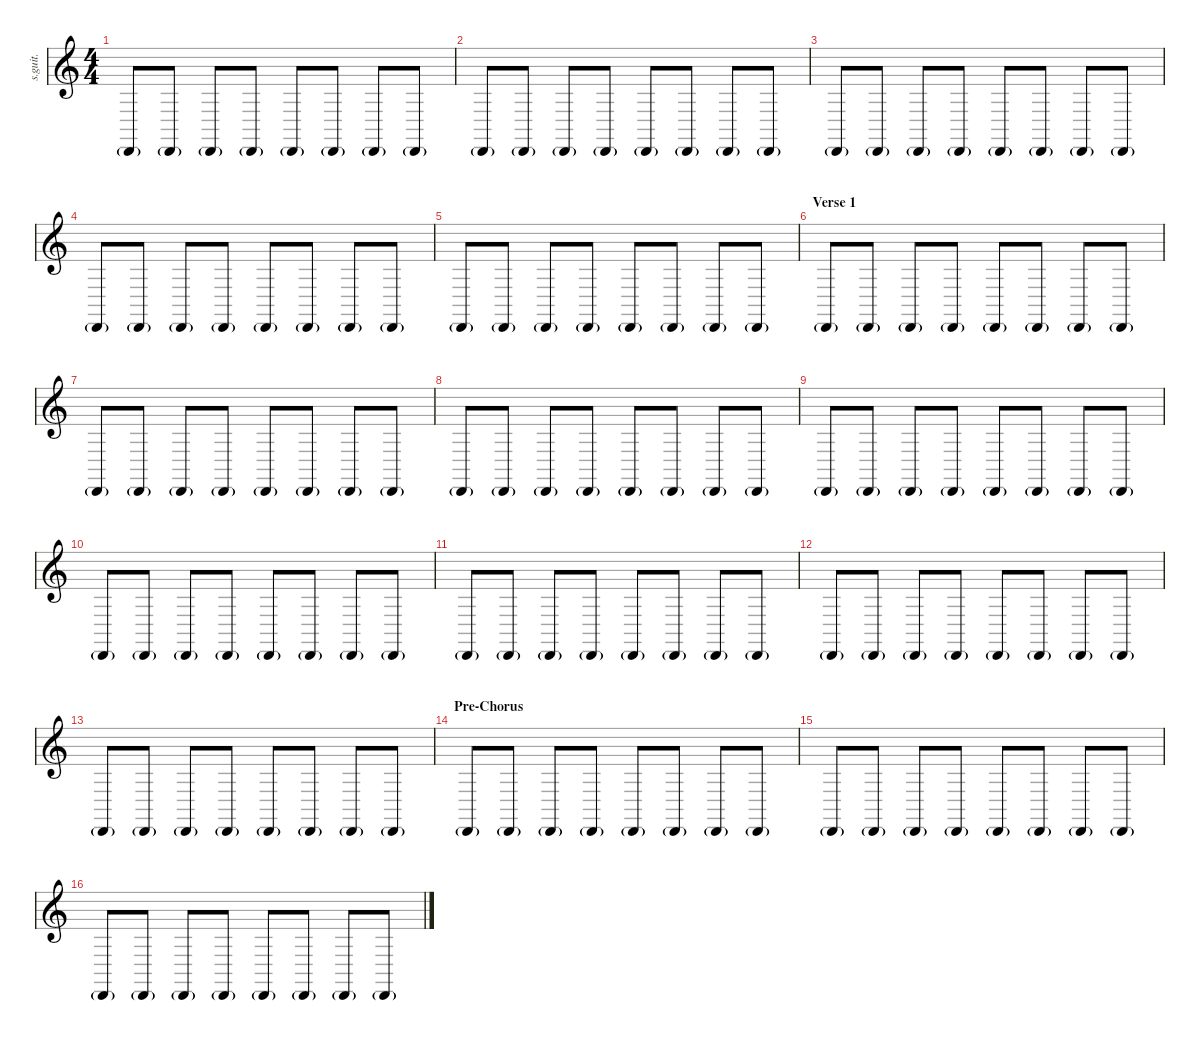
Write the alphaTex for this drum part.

\defaultSystemsLayout 4
\hideDynamics
\bracketExtendMode nobrackets
\track ("Shaker" "s.guit.") {instrument percussion}
\staff {score}
\articulation defaults
\ts (4 4)
\tempo (124 hide)
\clef g2
\ks c "Cabasa (hit)"{g}.8{lyrics (0 "") lyrics (1 "") lyrics (2 "") lyrics (3 "") lyrics (4 "") dy p} "Cabasa (hit)"{g}.8{lyrics (0 "") lyrics (1 "") lyrics (2 "") lyrics (3 "") lyrics (4 "") dy pp} "Cabasa (hit)"{g}.8{lyrics (0 "") lyrics (1 "") lyrics (2 "") lyrics (3 "") lyrics (4 "") dy p} "Cabasa (hit)"{g}.8{lyrics (0 "") lyrics (1 "") lyrics (2 "") lyrics (3 "") lyrics (4 "") dy pp} "Cabasa (hit)"{g}.8{lyrics (0 "") lyrics (1 "") lyrics (2 "") lyrics (3 "") lyrics (4 "") dy p} "Cabasa (hit)"{g}.8{lyrics (0 "") lyrics (1 "") lyrics (2 "") lyrics (3 "") lyrics (4 "") dy pp} "Cabasa (hit)"{g}.8{lyrics (0 "") lyrics (1 "") lyrics (2 "") lyrics (3 "") lyrics (4 "") dy p} "Cabasa (hit)"{g}.8{lyrics (0 "") lyrics (1 "") lyrics (2 "") lyrics (3 "") lyrics (4 "") dy pp}
|
"Cabasa (hit)"{g}.8{lyrics (0 "") lyrics (1 "") lyrics (2 "") lyrics (3 "") lyrics (4 "") dy p} "Cabasa (hit)"{g}.8{lyrics (0 "") lyrics (1 "") lyrics (2 "") lyrics (3 "") lyrics (4 "") dy pp} "Cabasa (hit)"{g}.8{lyrics (0 "") lyrics (1 "") lyrics (2 "") lyrics (3 "") lyrics (4 "") dy p} "Cabasa (hit)"{g}.8{lyrics (0 "") lyrics (1 "") lyrics (2 "") lyrics (3 "") lyrics (4 "") dy pp} "Cabasa (hit)"{g}.8{lyrics (0 "") lyrics (1 "") lyrics (2 "") lyrics (3 "") lyrics (4 "") dy p} "Cabasa (hit)"{g}.8{lyrics (0 "") lyrics (1 "") lyrics (2 "") lyrics (3 "") lyrics (4 "") dy pp} "Cabasa (hit)"{g}.8{lyrics (0 "") lyrics (1 "") lyrics (2 "") lyrics (3 "") lyrics (4 "") dy p} "Cabasa (hit)"{g}.8{lyrics (0 "") lyrics (1 "") lyrics (2 "") lyrics (3 "") lyrics (4 "") dy pp} |
"Cabasa (hit)"{g}.8{lyrics (0 "") lyrics (1 "") lyrics (2 "") lyrics (3 "") lyrics (4 "") dy p} "Cabasa (hit)"{g}.8{lyrics (0 "") lyrics (1 "") lyrics (2 "") lyrics (3 "") lyrics (4 "") dy pp} "Cabasa (hit)"{g}.8{lyrics (0 "") lyrics (1 "") lyrics (2 "") lyrics (3 "") lyrics (4 "") dy p} "Cabasa (hit)"{g}.8{lyrics (0 "") lyrics (1 "") lyrics (2 "") lyrics (3 "") lyrics (4 "") dy pp} "Cabasa (hit)"{g}.8{lyrics (0 "") lyrics (1 "") lyrics (2 "") lyrics (3 "") lyrics (4 "") dy p} "Cabasa (hit)"{g}.8{lyrics (0 "") lyrics (1 "") lyrics (2 "") lyrics (3 "") lyrics (4 "") dy pp} "Cabasa (hit)"{g}.8{lyrics (0 "") lyrics (1 "") lyrics (2 "") lyrics (3 "") lyrics (4 "") dy p} "Cabasa (hit)"{g}.8{lyrics (0 "") lyrics (1 "") lyrics (2 "") lyrics (3 "") lyrics (4 "") dy pp} |
"Cabasa (hit)"{g}.8{lyrics (0 "") lyrics (1 "") lyrics (2 "") lyrics (3 "") lyrics (4 "") dy p} "Cabasa (hit)"{g}.8{lyrics (0 "") lyrics (1 "") lyrics (2 "") lyrics (3 "") lyrics (4 "") dy pp} "Cabasa (hit)"{g}.8{lyrics (0 "") lyrics (1 "") lyrics (2 "") lyrics (3 "") lyrics (4 "") dy p} "Cabasa (hit)"{g}.8{lyrics (0 "") lyrics (1 "") lyrics (2 "") lyrics (3 "") lyrics (4 "") dy pp} "Cabasa (hit)"{g}.8{lyrics (0 "") lyrics (1 "") lyrics (2 "") lyrics (3 "") lyrics (4 "") dy p} "Cabasa (hit)"{g}.8{lyrics (0 "") lyrics (1 "") lyrics (2 "") lyrics (3 "") lyrics (4 "") dy pp} "Cabasa (hit)"{g}.8{lyrics (0 "") lyrics (1 "") lyrics (2 "") lyrics (3 "") lyrics (4 "") dy p} "Cabasa (hit)"{g}.8{lyrics (0 "") lyrics (1 "") lyrics (2 "") lyrics (3 "") lyrics (4 "") dy pp} |
"Cabasa (hit)"{g}.8{lyrics (0 "") lyrics (1 "") lyrics (2 "") lyrics (3 "") lyrics (4 "") dy p} "Cabasa (hit)"{g}.8{lyrics (0 "") lyrics (1 "") lyrics (2 "") lyrics (3 "") lyrics (4 "") dy pp} "Cabasa (hit)"{g}.8{lyrics (0 "") lyrics (1 "") lyrics (2 "") lyrics (3 "") lyrics (4 "") dy p} "Cabasa (hit)"{g}.8{lyrics (0 "") lyrics (1 "") lyrics (2 "") lyrics (3 "") lyrics (4 "") dy pp} "Cabasa (hit)"{g}.8{lyrics (0 "") lyrics (1 "") lyrics (2 "") lyrics (3 "") lyrics (4 "") dy p} "Cabasa (hit)"{g}.8{lyrics (0 "") lyrics (1 "") lyrics (2 "") lyrics (3 "") lyrics (4 "") dy pp} "Cabasa (hit)"{g}.8{lyrics (0 "") lyrics (1 "") lyrics (2 "") lyrics (3 "") lyrics (4 "") dy p} "Cabasa (hit)"{g}.8{lyrics (0 "") lyrics (1 "") lyrics (2 "") lyrics (3 "") lyrics (4 "") dy pp} |
\section ("" "Verse 1")
"Cabasa (hit)"{g}.8{lyrics (0 "") lyrics (1 "") lyrics (2 "") lyrics (3 "") lyrics (4 "") dy p} "Cabasa (hit)"{g}.8{lyrics (0 "") lyrics (1 "") lyrics (2 "") lyrics (3 "") lyrics (4 "") dy pp} "Cabasa (hit)"{g}.8{lyrics (0 "") lyrics (1 "") lyrics (2 "") lyrics (3 "") lyrics (4 "") dy p} "Cabasa (hit)"{g}.8{lyrics (0 "") lyrics (1 "") lyrics (2 "") lyrics (3 "") lyrics (4 "") dy pp} "Cabasa (hit)"{g}.8{lyrics (0 "") lyrics (1 "") lyrics (2 "") lyrics (3 "") lyrics (4 "") dy p} "Cabasa (hit)"{g}.8{lyrics (0 "") lyrics (1 "") lyrics (2 "") lyrics (3 "") lyrics (4 "") dy pp} "Cabasa (hit)"{g}.8{lyrics (0 "") lyrics (1 "") lyrics (2 "") lyrics (3 "") lyrics (4 "") dy p} "Cabasa (hit)"{g}.8{lyrics (0 "") lyrics (1 "") lyrics (2 "") lyrics (3 "") lyrics (4 "") dy pp} |
"Cabasa (hit)"{g}.8{lyrics (0 "") lyrics (1 "") lyrics (2 "") lyrics (3 "") lyrics (4 "") dy p} "Cabasa (hit)"{g}.8{lyrics (0 "") lyrics (1 "") lyrics (2 "") lyrics (3 "") lyrics (4 "") dy pp} "Cabasa (hit)"{g}.8{lyrics (0 "") lyrics (1 "") lyrics (2 "") lyrics (3 "") lyrics (4 "") dy p} "Cabasa (hit)"{g}.8{lyrics (0 "") lyrics (1 "") lyrics (2 "") lyrics (3 "") lyrics (4 "") dy pp} "Cabasa (hit)"{g}.8{lyrics (0 "") lyrics (1 "") lyrics (2 "") lyrics (3 "") lyrics (4 "") dy p} "Cabasa (hit)"{g}.8{lyrics (0 "") lyrics (1 "") lyrics (2 "") lyrics (3 "") lyrics (4 "") dy pp} "Cabasa (hit)"{g}.8{lyrics (0 "") lyrics (1 "") lyrics (2 "") lyrics (3 "") lyrics (4 "") dy p} "Cabasa (hit)"{g}.8{lyrics (0 "") lyrics (1 "") lyrics (2 "") lyrics (3 "") lyrics (4 "") dy pp} |
"Cabasa (hit)"{g}.8{lyrics (0 "") lyrics (1 "") lyrics (2 "") lyrics (3 "") lyrics (4 "") dy p} "Cabasa (hit)"{g}.8{lyrics (0 "") lyrics (1 "") lyrics (2 "") lyrics (3 "") lyrics (4 "") dy pp} "Cabasa (hit)"{g}.8{lyrics (0 "") lyrics (1 "") lyrics (2 "") lyrics (3 "") lyrics (4 "") dy p} "Cabasa (hit)"{g}.8{lyrics (0 "") lyrics (1 "") lyrics (2 "") lyrics (3 "") lyrics (4 "") dy pp} "Cabasa (hit)"{g}.8{lyrics (0 "") lyrics (1 "") lyrics (2 "") lyrics (3 "") lyrics (4 "") dy p} "Cabasa (hit)"{g}.8{lyrics (0 "") lyrics (1 "") lyrics (2 "") lyrics (3 "") lyrics (4 "") dy pp} "Cabasa (hit)"{g}.8{lyrics (0 "") lyrics (1 "") lyrics (2 "") lyrics (3 "") lyrics (4 "") dy p} "Cabasa (hit)"{g}.8{lyrics (0 "") lyrics (1 "") lyrics (2 "") lyrics (3 "") lyrics (4 "") dy pp} |
"Cabasa (hit)"{g}.8{lyrics (0 "") lyrics (1 "") lyrics (2 "") lyrics (3 "") lyrics (4 "") dy p} "Cabasa (hit)"{g}.8{lyrics (0 "") lyrics (1 "") lyrics (2 "") lyrics (3 "") lyrics (4 "") dy pp} "Cabasa (hit)"{g}.8{lyrics (0 "") lyrics (1 "") lyrics (2 "") lyrics (3 "") lyrics (4 "") dy p} "Cabasa (hit)"{g}.8{lyrics (0 "") lyrics (1 "") lyrics (2 "") lyrics (3 "") lyrics (4 "") dy pp} "Cabasa (hit)"{g}.8{lyrics (0 "") lyrics (1 "") lyrics (2 "") lyrics (3 "") lyrics (4 "") dy p} "Cabasa (hit)"{g}.8{lyrics (0 "") lyrics (1 "") lyrics (2 "") lyrics (3 "") lyrics (4 "") dy pp} "Cabasa (hit)"{g}.8{lyrics (0 "") lyrics (1 "") lyrics (2 "") lyrics (3 "") lyrics (4 "") dy p} "Cabasa (hit)"{g}.8{lyrics (0 "") lyrics (1 "") lyrics (2 "") lyrics (3 "") lyrics (4 "") dy pp} |
"Cabasa (hit)"{g}.8{lyrics (0 "") lyrics (1 "") lyrics (2 "") lyrics (3 "") lyrics (4 "") dy p} "Cabasa (hit)"{g}.8{lyrics (0 "") lyrics (1 "") lyrics (2 "") lyrics (3 "") lyrics (4 "") dy pp} "Cabasa (hit)"{g}.8{lyrics (0 "") lyrics (1 "") lyrics (2 "") lyrics (3 "") lyrics (4 "") dy p} "Cabasa (hit)"{g}.8{lyrics (0 "") lyrics (1 "") lyrics (2 "") lyrics (3 "") lyrics (4 "") dy pp} "Cabasa (hit)"{g}.8{lyrics (0 "") lyrics (1 "") lyrics (2 "") lyrics (3 "") lyrics (4 "") dy p} "Cabasa (hit)"{g}.8{lyrics (0 "") lyrics (1 "") lyrics (2 "") lyrics (3 "") lyrics (4 "") dy pp} "Cabasa (hit)"{g}.8{lyrics (0 "") lyrics (1 "") lyrics (2 "") lyrics (3 "") lyrics (4 "") dy p} "Cabasa (hit)"{g}.8{lyrics (0 "") lyrics (1 "") lyrics (2 "") lyrics (3 "") lyrics (4 "") dy pp} |
"Cabasa (hit)"{g}.8{lyrics (0 "") lyrics (1 "") lyrics (2 "") lyrics (3 "") lyrics (4 "") dy p} "Cabasa (hit)"{g}.8{lyrics (0 "") lyrics (1 "") lyrics (2 "") lyrics (3 "") lyrics (4 "") dy pp} "Cabasa (hit)"{g}.8{lyrics (0 "") lyrics (1 "") lyrics (2 "") lyrics (3 "") lyrics (4 "") dy p} "Cabasa (hit)"{g}.8{lyrics (0 "") lyrics (1 "") lyrics (2 "") lyrics (3 "") lyrics (4 "") dy pp} "Cabasa (hit)"{g}.8{lyrics (0 "") lyrics (1 "") lyrics (2 "") lyrics (3 "") lyrics (4 "") dy p} "Cabasa (hit)"{g}.8{lyrics (0 "") lyrics (1 "") lyrics (2 "") lyrics (3 "") lyrics (4 "") dy pp} "Cabasa (hit)"{g}.8{lyrics (0 "") lyrics (1 "") lyrics (2 "") lyrics (3 "") lyrics (4 "") dy p} "Cabasa (hit)"{g}.8{lyrics (0 "") lyrics (1 "") lyrics (2 "") lyrics (3 "") lyrics (4 "") dy pp} |
"Cabasa (hit)"{g}.8{lyrics (0 "") lyrics (1 "") lyrics (2 "") lyrics (3 "") lyrics (4 "") dy p} "Cabasa (hit)"{g}.8{lyrics (0 "") lyrics (1 "") lyrics (2 "") lyrics (3 "") lyrics (4 "") dy pp} "Cabasa (hit)"{g}.8{lyrics (0 "") lyrics (1 "") lyrics (2 "") lyrics (3 "") lyrics (4 "") dy p} "Cabasa (hit)"{g}.8{lyrics (0 "") lyrics (1 "") lyrics (2 "") lyrics (3 "") lyrics (4 "") dy pp} "Cabasa (hit)"{g}.8{lyrics (0 "") lyrics (1 "") lyrics (2 "") lyrics (3 "") lyrics (4 "") dy p} "Cabasa (hit)"{g}.8{lyrics (0 "") lyrics (1 "") lyrics (2 "") lyrics (3 "") lyrics (4 "") dy pp} "Cabasa (hit)"{g}.8{lyrics (0 "") lyrics (1 "") lyrics (2 "") lyrics (3 "") lyrics (4 "") dy p} "Cabasa (hit)"{g}.8{lyrics (0 "") lyrics (1 "") lyrics (2 "") lyrics (3 "") lyrics (4 "") dy pp} |
"Cabasa (hit)"{g}.8{lyrics (0 "") lyrics (1 "") lyrics (2 "") lyrics (3 "") lyrics (4 "") dy p} "Cabasa (hit)"{g}.8{lyrics (0 "") lyrics (1 "") lyrics (2 "") lyrics (3 "") lyrics (4 "") dy pp} "Cabasa (hit)"{g}.8{lyrics (0 "") lyrics (1 "") lyrics (2 "") lyrics (3 "") lyrics (4 "") dy p} "Cabasa (hit)"{g}.8{lyrics (0 "") lyrics (1 "") lyrics (2 "") lyrics (3 "") lyrics (4 "") dy pp} "Cabasa (hit)"{g}.8{lyrics (0 "") lyrics (1 "") lyrics (2 "") lyrics (3 "") lyrics (4 "") dy p} "Cabasa (hit)"{g}.8{lyrics (0 "") lyrics (1 "") lyrics (2 "") lyrics (3 "") lyrics (4 "") dy pp} "Cabasa (hit)"{g}.8{lyrics (0 "") lyrics (1 "") lyrics (2 "") lyrics (3 "") lyrics (4 "") dy p} "Cabasa (hit)"{g}.8{lyrics (0 "") lyrics (1 "") lyrics (2 "") lyrics (3 "") lyrics (4 "") dy pp} |
\section ("" "Pre-Chorus")
"Cabasa (hit)"{g}.8{lyrics (0 "") lyrics (1 "") lyrics (2 "") lyrics (3 "") lyrics (4 "") dy p} "Cabasa (hit)"{g}.8{lyrics (0 "") lyrics (1 "") lyrics (2 "") lyrics (3 "") lyrics (4 "") dy pp} "Cabasa (hit)"{g}.8{lyrics (0 "") lyrics (1 "") lyrics (2 "") lyrics (3 "") lyrics (4 "") dy p} "Cabasa (hit)"{g}.8{lyrics (0 "") lyrics (1 "") lyrics (2 "") lyrics (3 "") lyrics (4 "") dy pp} "Cabasa (hit)"{g}.8{lyrics (0 "") lyrics (1 "") lyrics (2 "") lyrics (3 "") lyrics (4 "") dy p} "Cabasa (hit)"{g}.8{lyrics (0 "") lyrics (1 "") lyrics (2 "") lyrics (3 "") lyrics (4 "") dy pp} "Cabasa (hit)"{g}.8{lyrics (0 "") lyrics (1 "") lyrics (2 "") lyrics (3 "") lyrics (4 "") dy p} "Cabasa (hit)"{g}.8{lyrics (0 "") lyrics (1 "") lyrics (2 "") lyrics (3 "") lyrics (4 "") dy pp} |
"Cabasa (hit)"{g}.8{lyrics (0 "") lyrics (1 "") lyrics (2 "") lyrics (3 "") lyrics (4 "") dy p} "Cabasa (hit)"{g}.8{lyrics (0 "") lyrics (1 "") lyrics (2 "") lyrics (3 "") lyrics (4 "") dy pp} "Cabasa (hit)"{g}.8{lyrics (0 "") lyrics (1 "") lyrics (2 "") lyrics (3 "") lyrics (4 "") dy p} "Cabasa (hit)"{g}.8{lyrics (0 "") lyrics (1 "") lyrics (2 "") lyrics (3 "") lyrics (4 "") dy pp} "Cabasa (hit)"{g}.8{lyrics (0 "") lyrics (1 "") lyrics (2 "") lyrics (3 "") lyrics (4 "") dy p} "Cabasa (hit)"{g}.8{lyrics (0 "") lyrics (1 "") lyrics (2 "") lyrics (3 "") lyrics (4 "") dy pp} "Cabasa (hit)"{g}.8{lyrics (0 "") lyrics (1 "") lyrics (2 "") lyrics (3 "") lyrics (4 "") dy p} "Cabasa (hit)"{g}.8{lyrics (0 "") lyrics (1 "") lyrics (2 "") lyrics (3 "") lyrics (4 "") dy pp} |
"Cabasa (hit)"{g}.8{lyrics (0 "") lyrics (1 "") lyrics (2 "") lyrics (3 "") lyrics (4 "") dy p} "Cabasa (hit)"{g}.8{lyrics (0 "") lyrics (1 "") lyrics (2 "") lyrics (3 "") lyrics (4 "") dy pp} "Cabasa (hit)"{g}.8{lyrics (0 "") lyrics (1 "") lyrics (2 "") lyrics (3 "") lyrics (4 "") dy p} "Cabasa (hit)"{g}.8{lyrics (0 "") lyrics (1 "") lyrics (2 "") lyrics (3 "") lyrics (4 "") dy pp} "Cabasa (hit)"{g}.8{lyrics (0 "") lyrics (1 "") lyrics (2 "") lyrics (3 "") lyrics (4 "") dy p} "Cabasa (hit)"{g}.8{lyrics (0 "") lyrics (1 "") lyrics (2 "") lyrics (3 "") lyrics (4 "") dy pp} "Cabasa (hit)"{g}.8{lyrics (0 "") lyrics (1 "") lyrics (2 "") lyrics (3 "") lyrics (4 "") dy p} "Cabasa (hit)"{g}.8{lyrics (0 "") lyrics (1 "") lyrics (2 "") lyrics (3 "") lyrics (4 "") dy pp}
